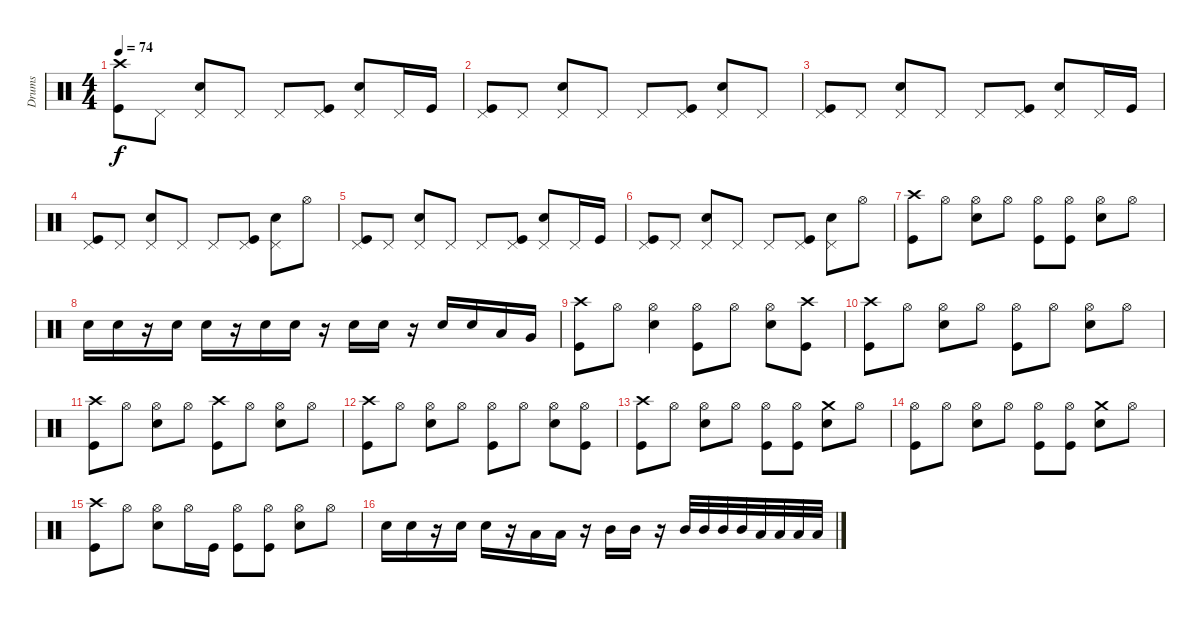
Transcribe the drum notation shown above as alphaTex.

\track ("Drums" "Drums") {instrument percussion}
\staff {score}
\articulation defaults
\ts (4 4)
\tempo 74
\clef neutral
\ks c
("Crash high (hit)" "Kick (hit)").8{dy f} "Pedal Hi-Hat (hit)".8 ("Pedal Hi-Hat (hit)" "Electric Snare (hit)").8 "Pedal Hi-Hat (hit)".8 "Pedal Hi-Hat (hit)".8 ("Pedal Hi-Hat (hit)" "Kick (hit)").8 ("Pedal Hi-Hat (hit)" "Electric Snare (hit)").8 "Pedal Hi-Hat (hit)".16 "Kick (hit)".16 |
("Pedal Hi-Hat (hit)" "Kick (hit)").8 "Pedal Hi-Hat (hit)".8 ("Pedal Hi-Hat (hit)" "Electric Snare (hit)").8 "Pedal Hi-Hat (hit)".8 "Pedal Hi-Hat (hit)".8 ("Pedal Hi-Hat (hit)" "Kick (hit)").8 ("Pedal Hi-Hat (hit)" "Electric Snare (hit)").8 "Pedal Hi-Hat (hit)".8 |
("Pedal Hi-Hat (hit)" "Kick (hit)").8 "Pedal Hi-Hat (hit)".8 ("Pedal Hi-Hat (hit)" "Electric Snare (hit)").8 "Pedal Hi-Hat (hit)".8 "Pedal Hi-Hat (hit)".8 ("Pedal Hi-Hat (hit)" "Kick (hit)").8 ("Pedal Hi-Hat (hit)" "Electric Snare (hit)").8 "Pedal Hi-Hat (hit)".16 "Kick (hit)".16 |
("Pedal Hi-Hat (hit)" "Kick (hit)").8 "Pedal Hi-Hat (hit)".8 ("Pedal Hi-Hat (hit)" "Electric Snare (hit)").8 "Pedal Hi-Hat (hit)".8 "Pedal Hi-Hat (hit)".8 ("Pedal Hi-Hat (hit)" "Kick (hit)").8 ("Pedal Hi-Hat (hit)" "Electric Snare (hit)").8 "Hi-Hat (open)".8 |
("Pedal Hi-Hat (hit)" "Kick (hit)").8 "Pedal Hi-Hat (hit)".8 ("Pedal Hi-Hat (hit)" "Electric Snare (hit)").8 "Pedal Hi-Hat (hit)".8 "Pedal Hi-Hat (hit)".8 ("Pedal Hi-Hat (hit)" "Kick (hit)").8 ("Pedal Hi-Hat (hit)" "Electric Snare (hit)").8 "Pedal Hi-Hat (hit)".16 "Kick (hit)".16 |
("Pedal Hi-Hat (hit)" "Kick (hit)").8 "Pedal Hi-Hat (hit)".8 ("Pedal Hi-Hat (hit)" "Electric Snare (hit)").8 "Pedal Hi-Hat (hit)".8 "Pedal Hi-Hat (hit)".8 ("Pedal Hi-Hat (hit)" "Kick (hit)").8 ("Pedal Hi-Hat (hit)" "Electric Snare (hit)").8 "Hi-Hat (open)".8 |
("Crash high (hit)" "Kick (hit)").8 "Hi-Hat (open)".8 ("Hi-Hat (open)" "Electric Snare (hit)").8 "Hi-Hat (open)".8 ("Hi-Hat (open)" "Kick (hit)").8 ("Hi-Hat (open)" "Kick (hit)").8 ("Hi-Hat (open)" "Electric Snare (hit)").8 "Hi-Hat (open)".8 |
"Electric Snare (hit)".16 "Electric Snare (hit)".16 r.16 "Electric Snare (hit)".16 "Electric Snare (hit)".16 r.16 "Electric Snare (hit)".16 "Electric Snare (hit)".16 r.16 "Electric Snare (hit)".16 "Electric Snare (hit)".16 r.16 "Electric Snare (hit)".16 "Electric Snare (hit)".16 "Low Tom (hit)".16 "Very Low Tom (hit)".16 |
("Crash high (hit)" "Kick (hit)").8 "Hi-Hat (open)".8 ("Hi-Hat (open)" "Electric Snare (hit)").4 ("Hi-Hat (open)" "Kick (hit)").8 "Hi-Hat (open)".8 ("Hi-Hat (open)" "Electric Snare (hit)").8 ("Crash high (hit)" "Kick (hit)").8 |
("Crash high (hit)" "Kick (hit)").8 "Hi-Hat (open)".8 ("Hi-Hat (open)" "Electric Snare (hit)").8 "Hi-Hat (open)".8 ("Hi-Hat (open)" "Kick (hit)").8 "Hi-Hat (open)".8 ("Hi-Hat (open)" "Electric Snare (hit)").8 "Hi-Hat (open)".8 |
("Crash high (hit)" "Kick (hit)").8 "Hi-Hat (open)".8 ("Hi-Hat (open)" "Electric Snare (hit)").8 "Hi-Hat (open)".8 ("Crash high (hit)" "Kick (hit)").8 "Hi-Hat (open)".8 ("Hi-Hat (open)" "Electric Snare (hit)").8 "Hi-Hat (open)".8 |
("Crash high (hit)" "Kick (hit)").8 "Hi-Hat (open)".8 ("Hi-Hat (open)" "Electric Snare (hit)").8 "Hi-Hat (open)".8 ("Hi-Hat (open)" "Kick (hit)").8 "Hi-Hat (open)".8 ("Hi-Hat (open)" "Electric Snare (hit)").8 ("Hi-Hat (open)" "Kick (hit)").8 |
("Crash high (hit)" "Kick (hit)").8 "Hi-Hat (open)".8 ("Hi-Hat (open)" "Electric Snare (hit)").8 "Hi-Hat (open)".8 ("Hi-Hat (open)" "Kick (hit)").8 ("Hi-Hat (open)" "Kick (hit)").8 ("Crash medium (hit)" "Electric Snare (hit)").8 "Hi-Hat (open)".8 |
("Hi-Hat (open)" "Kick (hit)").8 "Hi-Hat (open)".8 ("Hi-Hat (open)" "Electric Snare (hit)").8 "Hi-Hat (open)".8 ("Hi-Hat (open)" "Kick (hit)").8 ("Hi-Hat (open)" "Kick (hit)").8 ("Crash medium (hit)" "Electric Snare (hit)").8 "Hi-Hat (open)".8 |
("Crash high (hit)" "Kick (hit)").8 "Hi-Hat (open)".8 ("Hi-Hat (open)" "Electric Snare (hit)").8 "Hi-Hat (open)".16 "Kick (hit)".16 ("Hi-Hat (open)" "Kick (hit)").8 ("Hi-Hat (open)" "Kick (hit)").8 ("Hi-Hat (open)" "Electric Snare (hit)").8 "Hi-Hat (open)".8 |
"Electric Snare (hit)".16 "Electric Snare (hit)".16 r.16 "Electric Snare (hit)".16 "Electric Snare (hit)".16 r.16 "Low Tom (hit)".16 "Low Tom (hit)".16 r.16 "Mid Tom (hit)".16 "Mid Tom (hit)".16 r.16 "Mid Tom (hit)".32 "Mid Tom (hit)".32 "Mid Tom (hit)".32 "Mid Tom (hit)".32 "Low Tom (hit)".32 "Low Tom (hit)".32 "Low Tom (hit)".32 "Low Tom (hit)".32
